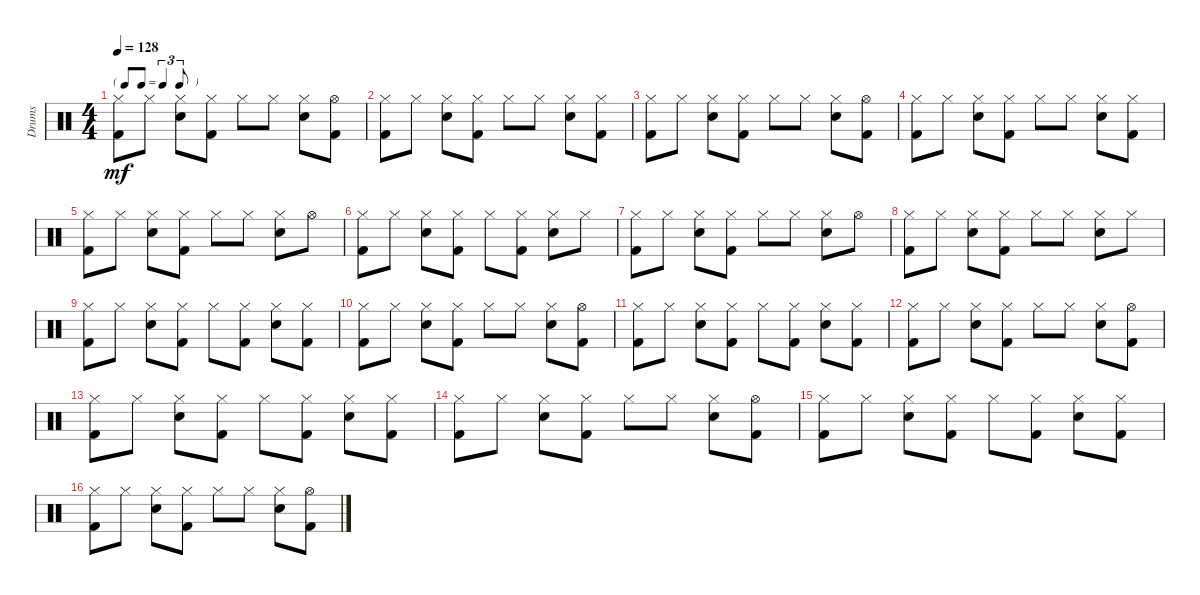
\track ("Drums" "Drums") {instrument percussion}
\staff {score}
\articulation defaults
\ts (4 4)
\tf triplet8th
\tempo 128
\clef neutral
\ks c
("Hi-Hat (closed)" "Kick (hit) 2").8{dy mf} "Hi-Hat (closed)".8 ("Hi-Hat (closed)" "Electric Snare (hit)").8 ("Hi-Hat (closed)" "Kick (hit) 2").8 "Hi-Hat (closed)".8 "Hi-Hat (closed)".8 ("Hi-Hat (closed)" "Electric Snare (hit)").8 ("Hi-Hat (open)" "Kick (hit) 2").8 |
("Hi-Hat (closed)" "Kick (hit) 2").8 "Hi-Hat (closed)".8 ("Hi-Hat (closed)" "Electric Snare (hit)").8 ("Hi-Hat (closed)" "Kick (hit) 2").8 "Hi-Hat (closed)".8 "Hi-Hat (closed)".8 ("Hi-Hat (closed)" "Electric Snare (hit)").8 ("Hi-Hat (closed)" "Kick (hit) 2").8 |
("Hi-Hat (closed)" "Kick (hit) 2").8 "Hi-Hat (closed)".8 ("Hi-Hat (closed)" "Electric Snare (hit)").8 ("Hi-Hat (closed)" "Kick (hit) 2").8 "Hi-Hat (closed)".8 "Hi-Hat (closed)".8 ("Hi-Hat (closed)" "Electric Snare (hit)").8 ("Hi-Hat (open)" "Kick (hit) 2").8 |
("Hi-Hat (closed)" "Kick (hit) 2").8 "Hi-Hat (closed)".8 ("Hi-Hat (closed)" "Electric Snare (hit)").8 ("Hi-Hat (closed)" "Kick (hit) 2").8 "Hi-Hat (closed)".8 "Hi-Hat (closed)".8 ("Hi-Hat (closed)" "Electric Snare (hit)").8 ("Hi-Hat (closed)" "Kick (hit) 2").8 |
("Hi-Hat (closed)" "Kick (hit) 2").8 "Hi-Hat (closed)".8 ("Hi-Hat (closed)" "Electric Snare (hit)").8 ("Hi-Hat (closed)" "Kick (hit) 2").8 "Hi-Hat (closed)".8 "Hi-Hat (closed)".8 ("Hi-Hat (closed)" "Electric Snare (hit)").8 "Hi-Hat (open)".8 |
("Hi-Hat (closed)" "Kick (hit) 2").8 "Hi-Hat (closed)".8 ("Hi-Hat (closed)" "Electric Snare (hit)").8 ("Hi-Hat (closed)" "Kick (hit) 2").8 "Hi-Hat (closed)".8 ("Hi-Hat (closed)" "Kick (hit) 2").8 ("Hi-Hat (closed)" "Electric Snare (hit)").8 "Hi-Hat (closed)".8 |
("Hi-Hat (closed)" "Kick (hit) 2").8 "Hi-Hat (closed)".8 ("Hi-Hat (closed)" "Electric Snare (hit)").8 ("Hi-Hat (closed)" "Kick (hit) 2").8 "Hi-Hat (closed)".8 "Hi-Hat (closed)".8 ("Hi-Hat (closed)" "Electric Snare (hit)").8 "Hi-Hat (open)".8 |
("Hi-Hat (closed)" "Kick (hit) 2").8 "Hi-Hat (closed)".8 ("Hi-Hat (closed)" "Electric Snare (hit)").8 ("Hi-Hat (closed)" "Kick (hit) 2").8 "Hi-Hat (closed)".8 "Hi-Hat (closed)".8 ("Hi-Hat (closed)" "Electric Snare (hit)").8 "Hi-Hat (closed)".8 |
("Hi-Hat (closed)" "Kick (hit) 2").8 "Hi-Hat (closed)".8 ("Hi-Hat (closed)" "Electric Snare (hit)").8 ("Hi-Hat (closed)" "Kick (hit) 2").8 "Hi-Hat (closed)".8 ("Hi-Hat (closed)" "Kick (hit) 2").8 ("Hi-Hat (closed)" "Electric Snare (hit)").8 ("Hi-Hat (closed)" "Kick (hit) 2").8 |
("Hi-Hat (closed)" "Kick (hit) 2").8 "Hi-Hat (closed)".8 ("Hi-Hat (closed)" "Electric Snare (hit)").8 ("Hi-Hat (closed)" "Kick (hit) 2").8 "Hi-Hat (closed)".8 "Hi-Hat (closed)".8 ("Hi-Hat (closed)" "Electric Snare (hit)").8 ("Hi-Hat (open)" "Kick (hit) 2").8 |
("Hi-Hat (closed)" "Kick (hit) 2").8 "Hi-Hat (closed)".8 ("Hi-Hat (closed)" "Electric Snare (hit)").8 ("Hi-Hat (closed)" "Kick (hit) 2").8 "Hi-Hat (closed)".8 ("Hi-Hat (closed)" "Kick (hit) 2").8 ("Hi-Hat (closed)" "Electric Snare (hit)").8 ("Hi-Hat (closed)" "Kick (hit) 2").8 |
("Hi-Hat (closed)" "Kick (hit) 2").8 "Hi-Hat (closed)".8 ("Hi-Hat (closed)" "Electric Snare (hit)").8 ("Hi-Hat (closed)" "Kick (hit) 2").8 "Hi-Hat (closed)".8 "Hi-Hat (closed)".8 ("Hi-Hat (closed)" "Electric Snare (hit)").8 ("Hi-Hat (open)" "Kick (hit) 2").8 |
("Hi-Hat (closed)" "Kick (hit) 2").8 "Hi-Hat (closed)".8 ("Hi-Hat (closed)" "Electric Snare (hit)").8 ("Hi-Hat (closed)" "Kick (hit) 2").8 "Hi-Hat (closed)".8 ("Hi-Hat (closed)" "Kick (hit) 2").8 ("Hi-Hat (closed)" "Electric Snare (hit)").8 ("Hi-Hat (closed)" "Kick (hit) 2").8 |
("Hi-Hat (closed)" "Kick (hit) 2").8 "Hi-Hat (closed)".8 ("Hi-Hat (closed)" "Electric Snare (hit)").8 ("Hi-Hat (closed)" "Kick (hit) 2").8 "Hi-Hat (closed)".8 "Hi-Hat (closed)".8 ("Hi-Hat (closed)" "Electric Snare (hit)").8 ("Hi-Hat (open)" "Kick (hit) 2").8 |
("Hi-Hat (closed)" "Kick (hit) 2").8 "Hi-Hat (closed)".8 ("Hi-Hat (closed)" "Electric Snare (hit)").8 ("Hi-Hat (closed)" "Kick (hit) 2").8 "Hi-Hat (closed)".8 ("Hi-Hat (closed)" "Kick (hit) 2").8 ("Hi-Hat (closed)" "Electric Snare (hit)").8 ("Hi-Hat (closed)" "Kick (hit) 2").8 |
("Hi-Hat (closed)" "Kick (hit) 2").8 "Hi-Hat (closed)".8 ("Hi-Hat (closed)" "Electric Snare (hit)").8 ("Hi-Hat (closed)" "Kick (hit) 2").8 "Hi-Hat (closed)".8 "Hi-Hat (closed)".8 ("Hi-Hat (closed)" "Electric Snare (hit)").8 ("Hi-Hat (open)" "Kick (hit) 2").8
